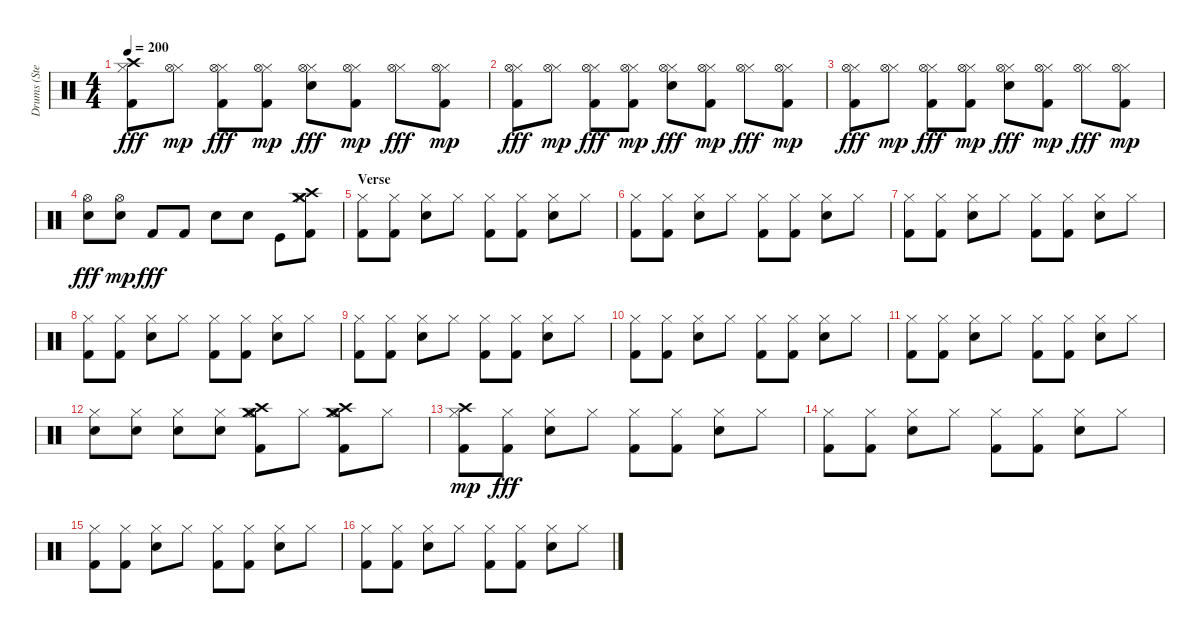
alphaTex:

\track ("Drums (Stevo32)" "Drums (Ste") {instrument percussion}
\staff {score}
\articulation defaults
\ts (4 4)
\tempo 200
\clef neutral
\ks c
("Kick (hit) 2" "Hi-Hat (closed)" "Crash high (hit)").8{dy fff} ("Hi-Hat (closed)" "Hi-Hat (open)").8{dy mp} ("Kick (hit) 2" "Hi-Hat (closed)" "Hi-Hat (open)").8{dy fff} ("Kick (hit) 2" "Hi-Hat (closed)" "Hi-Hat (open)").8{dy mp} ("Electric Snare (hit)" "Hi-Hat (closed)" "Hi-Hat (open)").8{dy fff} ("Kick (hit) 2" "Hi-Hat (closed)" "Hi-Hat (open)").8{dy mp} ("Hi-Hat (closed)" "Hi-Hat (open)").8{dy fff} ("Kick (hit) 2" "Hi-Hat (closed)" "Hi-Hat (open)").8{dy mp} |
("Kick (hit) 2" "Hi-Hat (closed)" "Hi-Hat (open)").8{dy fff} ("Hi-Hat (closed)" "Hi-Hat (open)").8{dy mp} ("Kick (hit) 2" "Hi-Hat (closed)" "Hi-Hat (open)").8{dy fff} ("Kick (hit) 2" "Hi-Hat (closed)" "Hi-Hat (open)").8{dy mp} ("Electric Snare (hit)" "Hi-Hat (closed)" "Hi-Hat (open)").8{dy fff} ("Kick (hit) 2" "Hi-Hat (closed)" "Hi-Hat (open)").8{dy mp} ("Hi-Hat (closed)" "Hi-Hat (open)").8{dy fff} ("Kick (hit) 2" "Hi-Hat (closed)" "Hi-Hat (open)").8{dy mp} |
("Kick (hit) 2" "Hi-Hat (closed)" "Hi-Hat (open)").8{dy fff} ("Hi-Hat (closed)" "Hi-Hat (open)").8{dy mp} ("Kick (hit) 2" "Hi-Hat (closed)" "Hi-Hat (open)").8{dy fff} ("Kick (hit) 2" "Hi-Hat (closed)" "Hi-Hat (open)").8{dy mp} ("Electric Snare (hit)" "Hi-Hat (closed)" "Hi-Hat (open)").8{dy fff} ("Kick (hit) 2" "Hi-Hat (closed)" "Hi-Hat (open)").8{dy mp} ("Hi-Hat (closed)" "Hi-Hat (open)").8{dy fff} ("Kick (hit) 2" "Hi-Hat (closed)" "Hi-Hat (open)").8{dy mp} |
("Electric Snare (hit)" "Hi-Hat (open)").8{dy fff} ("Electric Snare (hit)" "Hi-Hat (open)").8{dy mp} "Kick (hit) 2".8{dy fff} "Kick (hit) 2".8 "Electric Snare (hit)".8 "Electric Snare (hit)".8 "Kick (hit)".8 ("Kick (hit) 2" "Hi-Hat (closed)" "Hi-Hat (closed)" "Crash high (hit)" "Crash medium (hit)").8 |
\section ("" "Verse")
("Kick (hit) 2" "Hi-Hat (closed)").8 ("Kick (hit) 2" "Hi-Hat (closed)").8 ("Electric Snare (hit)" "Hi-Hat (closed)").8 "Hi-Hat (closed)".8 ("Kick (hit) 2" "Hi-Hat (closed)").8 ("Kick (hit) 2" "Hi-Hat (closed)").8 ("Electric Snare (hit)" "Hi-Hat (closed)").8 "Hi-Hat (closed)".8 |
("Kick (hit) 2" "Hi-Hat (closed)").8 ("Kick (hit) 2" "Hi-Hat (closed)").8 ("Electric Snare (hit)" "Hi-Hat (closed)").8 "Hi-Hat (closed)".8 ("Kick (hit) 2" "Hi-Hat (closed)").8 ("Kick (hit) 2" "Hi-Hat (closed)").8 ("Electric Snare (hit)" "Hi-Hat (closed)").8 "Hi-Hat (closed)".8 |
("Kick (hit) 2" "Hi-Hat (closed)").8 ("Kick (hit) 2" "Hi-Hat (closed)").8 ("Electric Snare (hit)" "Hi-Hat (closed)").8 "Hi-Hat (closed)".8 ("Kick (hit) 2" "Hi-Hat (closed)").8 ("Kick (hit) 2" "Hi-Hat (closed)").8 ("Electric Snare (hit)" "Hi-Hat (closed)").8 "Hi-Hat (closed)".8 |
("Kick (hit) 2" "Hi-Hat (closed)").8 ("Kick (hit) 2" "Hi-Hat (closed)").8 ("Electric Snare (hit)" "Hi-Hat (closed)").8 "Hi-Hat (closed)".8 ("Kick (hit) 2" "Hi-Hat (closed)").8 ("Kick (hit) 2" "Hi-Hat (closed)").8 ("Electric Snare (hit)" "Hi-Hat (closed)").8 "Hi-Hat (closed)".8 |
("Kick (hit) 2" "Hi-Hat (closed)").8 ("Kick (hit) 2" "Hi-Hat (closed)").8 ("Electric Snare (hit)" "Hi-Hat (closed)").8 "Hi-Hat (closed)".8 ("Kick (hit) 2" "Hi-Hat (closed)").8 ("Kick (hit) 2" "Hi-Hat (closed)").8 ("Electric Snare (hit)" "Hi-Hat (closed)").8 "Hi-Hat (closed)".8 |
("Kick (hit) 2" "Hi-Hat (closed)").8 ("Kick (hit) 2" "Hi-Hat (closed)").8 ("Electric Snare (hit)" "Hi-Hat (closed)").8 "Hi-Hat (closed)".8 ("Kick (hit) 2" "Hi-Hat (closed)").8 ("Kick (hit) 2" "Hi-Hat (closed)").8 ("Electric Snare (hit)" "Hi-Hat (closed)").8 "Hi-Hat (closed)".8 |
("Kick (hit) 2" "Hi-Hat (closed)").8 ("Kick (hit) 2" "Hi-Hat (closed)").8 ("Electric Snare (hit)" "Hi-Hat (closed)").8 "Hi-Hat (closed)".8 ("Kick (hit) 2" "Hi-Hat (closed)").8 ("Kick (hit) 2" "Hi-Hat (closed)").8 ("Electric Snare (hit)" "Hi-Hat (closed)").8 "Hi-Hat (closed)".8 |
("Electric Snare (hit)" "Hi-Hat (closed)").8 ("Electric Snare (hit)" "Hi-Hat (closed)").8 ("Electric Snare (hit)" "Hi-Hat (closed)").8 ("Electric Snare (hit)" "Hi-Hat (closed)").8 ("Kick (hit) 2" "Hi-Hat (closed)" "Hi-Hat (open)" "Crash high (hit)" "Crash medium (hit)").8 "Hi-Hat (closed)".8 ("Kick (hit) 2" "Hi-Hat (closed)" "Hi-Hat (open)" "Crash high (hit)" "Crash medium (hit)").8 "Hi-Hat (closed)".8 |
("Kick (hit) 2" "Hi-Hat (closed)" "Crash high (hit)").8{dy mp} ("Kick (hit) 2" "Hi-Hat (closed)").8{dy fff} ("Electric Snare (hit)" "Hi-Hat (closed)").8 "Hi-Hat (closed)".8 ("Kick (hit) 2" "Hi-Hat (closed)").8 ("Kick (hit) 2" "Hi-Hat (closed)").8 ("Electric Snare (hit)" "Hi-Hat (closed)").8 "Hi-Hat (closed)".8 |
("Kick (hit) 2" "Hi-Hat (closed)").8 ("Kick (hit) 2" "Hi-Hat (closed)").8 ("Electric Snare (hit)" "Hi-Hat (closed)").8 "Hi-Hat (closed)".8 ("Kick (hit) 2" "Hi-Hat (closed)").8 ("Kick (hit) 2" "Hi-Hat (closed)").8 ("Electric Snare (hit)" "Hi-Hat (closed)").8 "Hi-Hat (closed)".8 |
("Kick (hit) 2" "Hi-Hat (closed)").8 ("Kick (hit) 2" "Hi-Hat (closed)").8 ("Electric Snare (hit)" "Hi-Hat (closed)").8 "Hi-Hat (closed)".8 ("Kick (hit) 2" "Hi-Hat (closed)").8 ("Kick (hit) 2" "Hi-Hat (closed)").8 ("Electric Snare (hit)" "Hi-Hat (closed)").8 "Hi-Hat (closed)".8 |
("Kick (hit) 2" "Hi-Hat (closed)").8 ("Kick (hit) 2" "Hi-Hat (closed)").8 ("Electric Snare (hit)" "Hi-Hat (closed)").8 "Hi-Hat (closed)".8 ("Kick (hit) 2" "Hi-Hat (closed)").8 ("Kick (hit) 2" "Hi-Hat (closed)").8 ("Electric Snare (hit)" "Hi-Hat (closed)").8 "Hi-Hat (closed)".8
